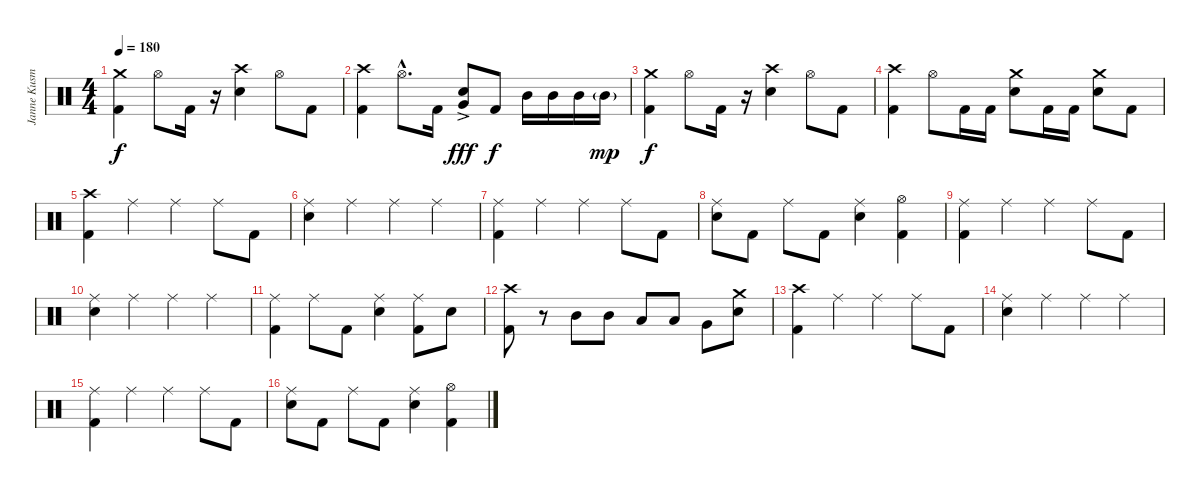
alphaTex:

\track ("Janne Kusmin - Drums" "Janne Kusm") {instrument percussion}
\staff {score}
\articulation defaults
\ts (4 4)
\tempo 180
\clef neutral
\ks c
("Crash medium (hit)" "Kick (hit) 2").4{dy f} "Hi-Hat (open)".8 "Kick (hit) 2".16 r.16 ("Crash high (hit)" "Electric Snare (hit)").4 "Hi-Hat (open)".8 "Kick (hit) 2".8 |
("Crash high (hit)" "Kick (hit) 2").4 "Hi-Hat (open)"{hac}.8{d} "Kick (hit) 2".16 ("Very Low Tom (hit)"{ac} "Electric Snare (hit)").8{dy fff} "Kick (hit) 2".8{dy f} "Mid Tom (hit)".16 "Mid Tom (hit)".16 "Mid Tom (hit)".16 "Mid Tom (hit)"{g}.16{dy mp} |
("Crash medium (hit)" "Kick (hit) 2").4{dy f} "Hi-Hat (open)".8 "Kick (hit) 2".16 r.16 ("Crash high (hit)" "Electric Snare (hit)").4 "Hi-Hat (open)".8 "Kick (hit) 2".8 |
("Crash high (hit)" "Kick (hit) 2").4 "Hi-Hat (open)".8 "Kick (hit) 2".16 "Kick (hit) 2".16 ("Crash medium (hit)" "Electric Snare (hit)").8 "Kick (hit) 2".16 "Kick (hit) 2".16 ("Crash medium (hit)" "Electric Snare (hit)").8 "Kick (hit) 2".8 |
\section ("" "")
("Crash high (hit)" "Kick (hit) 2").4 "Ride (middle)".4 "Ride (middle)".4 "Ride (middle)".8 "Kick (hit) 2".8 |
("Ride (middle)" "Electric Snare (hit)").4 "Ride (middle)".4 "Ride (middle)".4 "Ride (middle)".4 |
("Ride (middle)" "Kick (hit) 2").4 "Ride (middle)".4 "Ride (middle)".4 "Ride (middle)".8 "Kick (hit) 2".8 |
("Ride (middle)" "Electric Snare (hit)").8 "Kick (hit) 2".8 "Ride (middle)".8 "Kick (hit) 2".8 ("Ride (middle)" "Electric Snare (hit)").4 ("Hi-Hat (open)" "Kick (hit) 2").4 |
("Ride (middle)" "Kick (hit) 2").4 "Ride (middle)".4 "Ride (middle)".4 "Ride (middle)".8 "Kick (hit) 2".8 |
("Ride (middle)" "Electric Snare (hit)").4 "Ride (middle)".4 "Ride (middle)".4 "Ride (middle)".4 |
("Ride (middle)" "Kick (hit) 2").4 "Ride (middle)".8 "Kick (hit) 2".8 ("Ride (middle)" "Electric Snare (hit)").4 ("Ride (middle)" "Kick (hit) 2").8 "Electric Snare (hit)".8 |
("Crash high (hit)" "Kick (hit) 2").8 r.8 "Mid Tom (hit)".8 "Mid Tom (hit)".8 "Low Tom (hit)".8 "Low Tom (hit)".8 "Very Low Tom (hit)".8 ("Crash medium (hit)" "Electric Snare (hit)").8 |
("Crash high (hit)" "Kick (hit) 2").4 "Ride (middle)".4 "Ride (middle)".4 "Ride (middle)".8 "Kick (hit) 2".8 |
("Ride (middle)" "Electric Snare (hit)").4 "Ride (middle)".4 "Ride (middle)".4 "Ride (middle)".4 |
("Ride (middle)" "Kick (hit) 2").4 "Ride (middle)".4 "Ride (middle)".4 "Ride (middle)".8 "Kick (hit) 2".8 |
("Ride (middle)" "Electric Snare (hit)").8 "Kick (hit) 2".8 "Ride (middle)".8 "Kick (hit) 2".8 ("Ride (middle)" "Electric Snare (hit)").4 ("Hi-Hat (open)" "Kick (hit) 2").4
